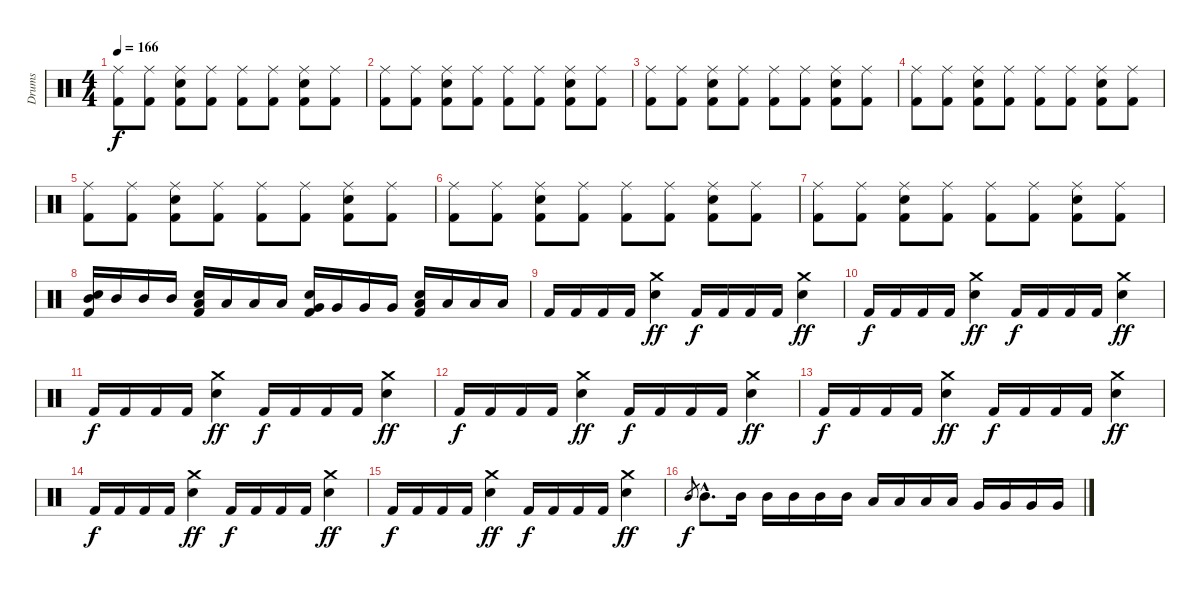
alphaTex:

\track ("Drums" "Drums") {instrument percussion}
\staff {score}
\articulation defaults
\ts (4 4)
\tempo 166
\clef neutral
\ks c
("Ride (middle)" "Kick (hit) 2").8{dy f} ("Ride (middle)" "Kick (hit) 2").8 ("Ride (middle)" "Electric Snare (hit)" "Kick (hit) 2").8 ("Ride (middle)" "Kick (hit) 2").8 ("Ride (middle)" "Kick (hit) 2").8 ("Ride (middle)" "Kick (hit) 2").8 ("Ride (middle)" "Electric Snare (hit)" "Kick (hit) 2").8 ("Ride (middle)" "Kick (hit) 2").8 |
("Ride (middle)" "Kick (hit) 2").8 ("Ride (middle)" "Kick (hit) 2").8 ("Ride (middle)" "Electric Snare (hit)" "Kick (hit) 2").8 ("Ride (middle)" "Kick (hit) 2").8 ("Ride (middle)" "Kick (hit) 2").8 ("Ride (middle)" "Kick (hit) 2").8 ("Ride (middle)" "Electric Snare (hit)" "Kick (hit) 2").8 ("Ride (middle)" "Kick (hit) 2").8 |
("Ride (middle)" "Kick (hit) 2").8 ("Ride (middle)" "Kick (hit) 2").8 ("Ride (middle)" "Electric Snare (hit)" "Kick (hit) 2").8 ("Ride (middle)" "Kick (hit) 2").8 ("Ride (middle)" "Kick (hit) 2").8 ("Ride (middle)" "Kick (hit) 2").8 ("Ride (middle)" "Electric Snare (hit)" "Kick (hit) 2").8 ("Ride (middle)" "Kick (hit) 2").8 |
("Ride (middle)" "Kick (hit) 2").8 ("Ride (middle)" "Kick (hit) 2").8 ("Ride (middle)" "Electric Snare (hit)" "Kick (hit) 2").8 ("Ride (middle)" "Kick (hit) 2").8 ("Ride (middle)" "Kick (hit) 2").8 ("Ride (middle)" "Kick (hit) 2").8 ("Ride (middle)" "Electric Snare (hit)" "Kick (hit) 2").8 ("Ride (middle)" "Kick (hit) 2").8 |
("Ride (middle)" "Kick (hit) 2").8 ("Ride (middle)" "Kick (hit) 2").8 ("Ride (middle)" "Electric Snare (hit)" "Kick (hit) 2").8 ("Ride (middle)" "Kick (hit) 2").8 ("Ride (middle)" "Kick (hit) 2").8 ("Ride (middle)" "Kick (hit) 2").8 ("Ride (middle)" "Electric Snare (hit)" "Kick (hit) 2").8 ("Ride (middle)" "Kick (hit) 2").8 |
("Ride (middle)" "Kick (hit) 2").8 ("Ride (middle)" "Kick (hit) 2").8 ("Ride (middle)" "Electric Snare (hit)" "Kick (hit) 2").8 ("Ride (middle)" "Kick (hit) 2").8 ("Ride (middle)" "Kick (hit) 2").8 ("Ride (middle)" "Kick (hit) 2").8 ("Ride (middle)" "Electric Snare (hit)" "Kick (hit) 2").8 ("Ride (middle)" "Kick (hit) 2").8 |
("Ride (middle)" "Kick (hit) 2").8 ("Ride (middle)" "Kick (hit) 2").8 ("Ride (middle)" "Electric Snare (hit)" "Kick (hit) 2").8 ("Ride (middle)" "Kick (hit) 2").8 ("Ride (middle)" "Kick (hit) 2").8 ("Ride (middle)" "Kick (hit) 2").8 ("Ride (middle)" "Electric Snare (hit)" "Kick (hit) 2").8 ("Ride (middle)" "Kick (hit) 2").8 |
("Electric Snare (hit)" "Mid Tom (hit)" "Kick (hit) 2").16 "Mid Tom (hit)".16 "Mid Tom (hit)".16 "Mid Tom (hit)".16 ("Electric Snare (hit)" "Low Tom (hit)" "Kick (hit) 2").16 "Low Tom (hit)".16 "Low Tom (hit)".16 "Low Tom (hit)".16 ("Electric Snare (hit)" "Very Low Tom (hit)" "Kick (hit) 2").16 "Very Low Tom (hit)".16 "Very Low Tom (hit)".16 "Very Low Tom (hit)".16 ("Electric Snare (hit)" "Low Floor Tom (hit)" "Kick (hit) 2").16 "Low Floor Tom (hit)".16 "Low Floor Tom (hit)".16 "Low Floor Tom (hit)".16 |
"Kick (hit) 2".16 "Kick (hit) 2".16 "Kick (hit) 2".16 "Kick (hit) 2".16 ("Crash medium (hit)" "Electric Snare (hit)").4{dy ff} "Kick (hit) 2".16{dy f} "Kick (hit) 2".16 "Kick (hit) 2".16 "Kick (hit) 2".16 ("Crash medium (hit)" "Electric Snare (hit)").4{dy ff} |
"Kick (hit) 2".16{dy f} "Kick (hit) 2".16 "Kick (hit) 2".16 "Kick (hit) 2".16 ("Crash medium (hit)" "Electric Snare (hit)").4{dy ff} "Kick (hit) 2".16{dy f} "Kick (hit) 2".16 "Kick (hit) 2".16 "Kick (hit) 2".16 ("Crash medium (hit)" "Electric Snare (hit)").4{dy ff} |
"Kick (hit) 2".16{dy f} "Kick (hit) 2".16 "Kick (hit) 2".16 "Kick (hit) 2".16 ("Crash medium (hit)" "Electric Snare (hit)").4{dy ff} "Kick (hit) 2".16{dy f} "Kick (hit) 2".16 "Kick (hit) 2".16 "Kick (hit) 2".16 ("Crash medium (hit)" "Electric Snare (hit)").4{dy ff} |
"Kick (hit) 2".16{dy f} "Kick (hit) 2".16 "Kick (hit) 2".16 "Kick (hit) 2".16 ("Crash medium (hit)" "Electric Snare (hit)").4{dy ff} "Kick (hit) 2".16{dy f} "Kick (hit) 2".16 "Kick (hit) 2".16 "Kick (hit) 2".16 ("Crash medium (hit)" "Electric Snare (hit)").4{dy ff} |
"Kick (hit) 2".16{dy f} "Kick (hit) 2".16 "Kick (hit) 2".16 "Kick (hit) 2".16 ("Crash medium (hit)" "Electric Snare (hit)").4{dy ff} "Kick (hit) 2".16{dy f} "Kick (hit) 2".16 "Kick (hit) 2".16 "Kick (hit) 2".16 ("Crash medium (hit)" "Electric Snare (hit)").4{dy ff} |
"Kick (hit) 2".16{dy f} "Kick (hit) 2".16 "Kick (hit) 2".16 "Kick (hit) 2".16 ("Crash medium (hit)" "Electric Snare (hit)").4{dy ff} "Kick (hit) 2".16{dy f} "Kick (hit) 2".16 "Kick (hit) 2".16 "Kick (hit) 2".16 ("Crash medium (hit)" "Electric Snare (hit)").4{dy ff} |
"Kick (hit) 2".16{dy f} "Kick (hit) 2".16 "Kick (hit) 2".16 "Kick (hit) 2".16 ("Crash medium (hit)" "Electric Snare (hit)").4{dy ff} "Kick (hit) 2".16{dy f} "Kick (hit) 2".16 "Kick (hit) 2".16 "Kick (hit) 2".16 ("Crash medium (hit)" "Electric Snare (hit)").4{dy ff} |
"Mid Tom (hit)".8{gr dy f} "Mid Tom (hit)"{hac}.8{d} "Mid Tom (hit)".16 "Mid Tom (hit)".16 "Mid Tom (hit)".16 "Mid Tom (hit)".16 "Mid Tom (hit)".16 "Low Tom (hit)".16 "Low Tom (hit)".16 "Low Tom (hit)".16 "Low Tom (hit)".16 "Very Low Tom (hit)".16 "Very Low Tom (hit)".16 "Very Low Tom (hit)".16 "Very Low Tom (hit)".16
